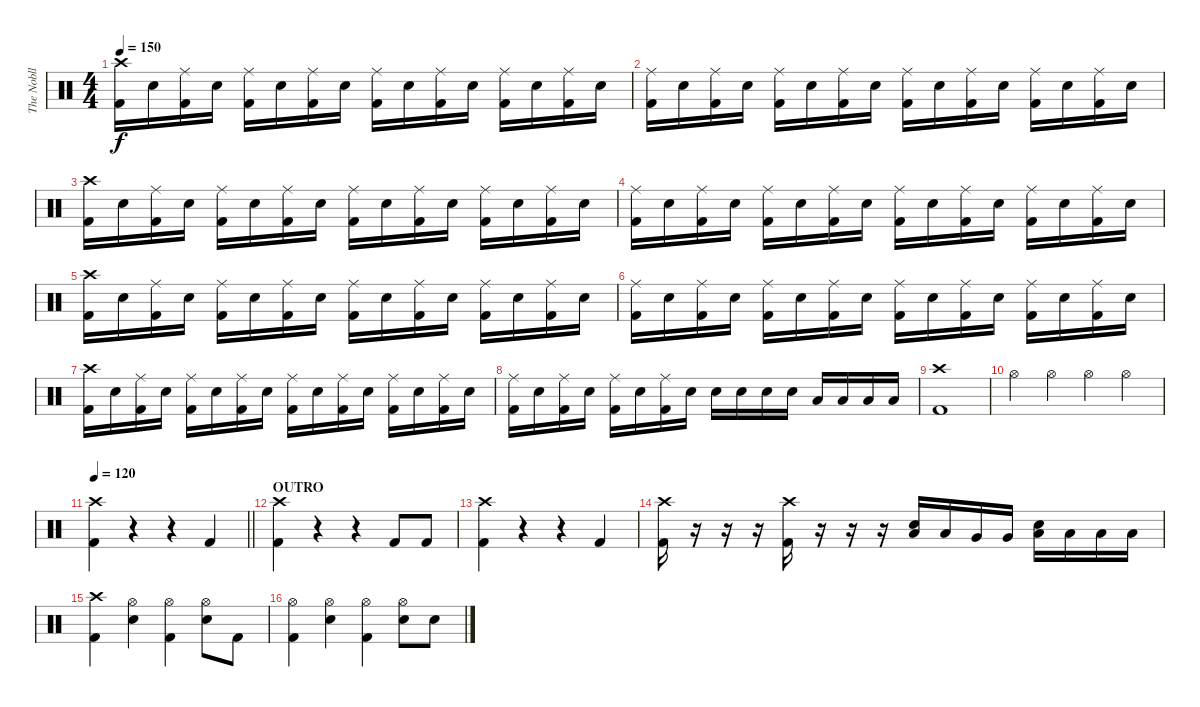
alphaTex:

\track ("The Nobll" "The Nobll") {instrument percussion}
\staff {score}
\articulation defaults
\ts (4 4)
\tempo 150
\clef neutral
\ks c
("Crash high (hit)" "Kick (hit) 2").16{dy f} "Snare (hit) 2".16 ("Ride (middle)" "Kick (hit) 2").16 "Snare (hit) 2".16 ("Ride (middle)" "Kick (hit) 2").16 "Snare (hit) 2".16 ("Ride (middle)" "Kick (hit) 2").16 "Snare (hit) 2".16 ("Ride (middle)" "Kick (hit) 2").16 "Snare (hit) 2".16 ("Ride (middle)" "Kick (hit) 2").16 "Snare (hit) 2".16 ("Ride (middle)" "Kick (hit) 2").16 "Snare (hit) 2".16 ("Ride (middle)" "Kick (hit) 2").16 "Snare (hit) 2".16 |
("Ride (middle)" "Kick (hit) 2").16 "Snare (hit) 2".16 ("Ride (middle)" "Kick (hit) 2").16 "Snare (hit) 2".16 ("Ride (middle)" "Kick (hit) 2").16 "Snare (hit) 2".16 ("Ride (middle)" "Kick (hit) 2").16 "Snare (hit) 2".16 ("Ride (middle)" "Kick (hit) 2").16 "Snare (hit) 2".16 ("Ride (middle)" "Kick (hit) 2").16 "Snare (hit) 2".16 ("Ride (middle)" "Kick (hit) 2").16 "Snare (hit) 2".16 ("Ride (middle)" "Kick (hit) 2").16 "Snare (hit) 2".16 |
("Crash high (hit)" "Kick (hit) 2").16 "Snare (hit) 2".16 ("Ride (middle)" "Kick (hit) 2").16 "Snare (hit) 2".16 ("Ride (middle)" "Kick (hit) 2").16 "Snare (hit) 2".16 ("Ride (middle)" "Kick (hit) 2").16 "Snare (hit) 2".16 ("Ride (middle)" "Kick (hit) 2").16 "Snare (hit) 2".16 ("Ride (middle)" "Kick (hit) 2").16 "Snare (hit) 2".16 ("Ride (middle)" "Kick (hit) 2").16 "Snare (hit) 2".16 ("Ride (middle)" "Kick (hit) 2").16 "Snare (hit) 2".16 |
("Ride (middle)" "Kick (hit) 2").16 "Snare (hit) 2".16 ("Ride (middle)" "Kick (hit) 2").16 "Snare (hit) 2".16 ("Ride (middle)" "Kick (hit) 2").16 "Snare (hit) 2".16 ("Ride (middle)" "Kick (hit) 2").16 "Snare (hit) 2".16 ("Ride (middle)" "Kick (hit) 2").16 "Snare (hit) 2".16 ("Ride (middle)" "Kick (hit) 2").16 "Snare (hit) 2".16 ("Ride (middle)" "Kick (hit) 2").16 "Snare (hit) 2".16 ("Ride (middle)" "Kick (hit) 2").16 "Snare (hit) 2".16 |
("Crash high (hit)" "Kick (hit) 2").16 "Snare (hit) 2".16 ("Ride (middle)" "Kick (hit) 2").16 "Snare (hit) 2".16 ("Ride (middle)" "Kick (hit) 2").16 "Snare (hit) 2".16 ("Ride (middle)" "Kick (hit) 2").16 "Snare (hit) 2".16 ("Ride (middle)" "Kick (hit) 2").16 "Snare (hit) 2".16 ("Ride (middle)" "Kick (hit) 2").16 "Snare (hit) 2".16 ("Ride (middle)" "Kick (hit) 2").16 "Snare (hit) 2".16 ("Ride (middle)" "Kick (hit) 2").16 "Snare (hit) 2".16 |
("Ride (middle)" "Kick (hit) 2").16 "Snare (hit) 2".16 ("Ride (middle)" "Kick (hit) 2").16 "Snare (hit) 2".16 ("Ride (middle)" "Kick (hit) 2").16 "Snare (hit) 2".16 ("Ride (middle)" "Kick (hit) 2").16 "Snare (hit) 2".16 ("Ride (middle)" "Kick (hit) 2").16 "Snare (hit) 2".16 ("Ride (middle)" "Kick (hit) 2").16 "Snare (hit) 2".16 ("Ride (middle)" "Kick (hit) 2").16 "Snare (hit) 2".16 ("Ride (middle)" "Kick (hit) 2").16 "Snare (hit) 2".16 |
("Crash high (hit)" "Kick (hit) 2").16 "Snare (hit) 2".16 ("Ride (middle)" "Kick (hit) 2").16 "Snare (hit) 2".16 ("Ride (middle)" "Kick (hit) 2").16 "Snare (hit) 2".16 ("Ride (middle)" "Kick (hit) 2").16 "Snare (hit) 2".16 ("Ride (middle)" "Kick (hit) 2").16 "Snare (hit) 2".16 ("Ride (middle)" "Kick (hit) 2").16 "Snare (hit) 2".16 ("Ride (middle)" "Kick (hit) 2").16 "Snare (hit) 2".16 ("Ride (middle)" "Kick (hit) 2").16 "Snare (hit) 2".16 |
("Ride (middle)" "Kick (hit) 2").16 "Snare (hit) 2".16 ("Ride (middle)" "Kick (hit) 2").16 "Snare (hit) 2".16 ("Ride (middle)" "Kick (hit) 2").16 "Snare (hit) 2".16 ("Ride (middle)" "Kick (hit) 2").16 "Snare (hit) 2".16 "Snare (hit) 2".16 "Snare (hit) 2".16 "Snare (hit) 2".16 "Snare (hit) 2".16 "Low Tom (hit)".16 "Low Tom (hit)".16 "Low Tom (hit)".16 "Low Tom (hit)".16 |
("Crash high (hit)" "Kick (hit) 2").1 |
"Hi-Hat (open)".4 "Hi-Hat (open)".4 "Hi-Hat (open)".4 "Hi-Hat (open)".4 |
\tempo 120
\barLineRight lightlight
("Crash high (hit)" "Kick (hit) 2").4 r.4 r.4 "Kick (hit) 2".4 |
\section ("" "OUTRO")
("Crash high (hit)" "Kick (hit) 2").4 r.4 r.4 "Kick (hit) 2".8 "Kick (hit) 2".8 |
("Crash high (hit)" "Kick (hit) 2").4 r.4 r.4 "Kick (hit) 2".4 |
("Crash high (hit)" "Kick (hit) 2").16 r.16 r.16 r.16 ("Crash high (hit)" "Kick (hit) 2").16 r.16 r.16 r.16 ("Low Tom (hit)" "Snare (hit) 2").16 "Low Tom (hit)".16 "Very Low Tom (hit)".16 "Very Low Tom (hit)".16 ("Low Floor Tom (hit)" "Snare (hit) 2").16 "Low Floor Tom (hit)".16 "Low Floor Tom (hit)".16 "Low Floor Tom (hit)".16 |
("Crash high (hit)" "Kick (hit) 2").4 ("Hi-Hat (open)" "Snare (hit) 2").4 ("Hi-Hat (open)" "Kick (hit) 2").4 ("Hi-Hat (open)" "Snare (hit) 2").8 "Kick (hit) 2".8 |
("Hi-Hat (open)" "Kick (hit) 2").4 ("Hi-Hat (open)" "Snare (hit) 2").4 ("Hi-Hat (open)" "Kick (hit) 2").4 ("Hi-Hat (open)" "Snare (hit) 2").8 "Snare (hit) 2".8
